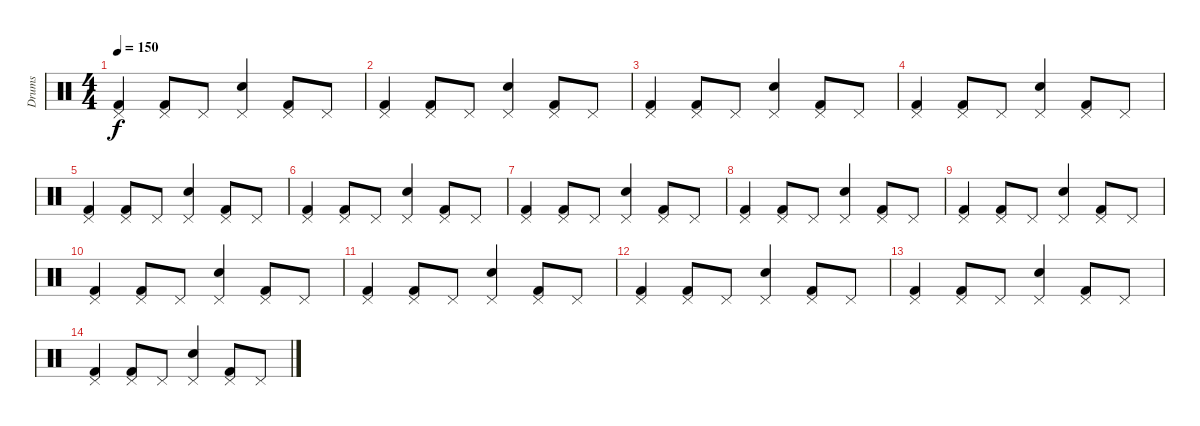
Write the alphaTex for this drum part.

\track ("Drums" "Drums") {instrument percussion}
\staff {score}
\articulation defaults
\ts (4 4)
\tempo 150
\clef neutral
\ks c
("Pedal Hi-Hat (hit)" "Kick (hit) 2").4{dy f} ("Pedal Hi-Hat (hit)" "Kick (hit) 2").8 "Pedal Hi-Hat (hit)".8 ("Pedal Hi-Hat (hit)" "Snare (hit) 2").4 ("Pedal Hi-Hat (hit)" "Kick (hit) 2").8 "Pedal Hi-Hat (hit)".8 |
("Pedal Hi-Hat (hit)" "Kick (hit) 2").4 ("Pedal Hi-Hat (hit)" "Kick (hit) 2").8 "Pedal Hi-Hat (hit)".8 ("Pedal Hi-Hat (hit)" "Snare (hit) 2").4 ("Pedal Hi-Hat (hit)" "Kick (hit) 2").8 "Pedal Hi-Hat (hit)".8 |
("Pedal Hi-Hat (hit)" "Kick (hit) 2").4 ("Pedal Hi-Hat (hit)" "Kick (hit) 2").8 "Pedal Hi-Hat (hit)".8 ("Pedal Hi-Hat (hit)" "Snare (hit) 2").4 ("Pedal Hi-Hat (hit)" "Kick (hit) 2").8 "Pedal Hi-Hat (hit)".8 |
("Pedal Hi-Hat (hit)" "Kick (hit) 2").4 ("Pedal Hi-Hat (hit)" "Kick (hit) 2").8 "Pedal Hi-Hat (hit)".8 ("Pedal Hi-Hat (hit)" "Snare (hit) 2").4 ("Pedal Hi-Hat (hit)" "Kick (hit) 2").8 "Pedal Hi-Hat (hit)".8 |
("Pedal Hi-Hat (hit)" "Kick (hit) 2").4 ("Pedal Hi-Hat (hit)" "Kick (hit) 2").8 "Pedal Hi-Hat (hit)".8 ("Pedal Hi-Hat (hit)" "Snare (hit) 2").4 ("Pedal Hi-Hat (hit)" "Kick (hit) 2").8 "Pedal Hi-Hat (hit)".8 |
("Pedal Hi-Hat (hit)" "Kick (hit) 2").4 ("Pedal Hi-Hat (hit)" "Kick (hit) 2").8 "Pedal Hi-Hat (hit)".8 ("Pedal Hi-Hat (hit)" "Snare (hit) 2").4 ("Pedal Hi-Hat (hit)" "Kick (hit) 2").8 "Pedal Hi-Hat (hit)".8 |
("Pedal Hi-Hat (hit)" "Kick (hit) 2").4 ("Pedal Hi-Hat (hit)" "Kick (hit) 2").8 "Pedal Hi-Hat (hit)".8 ("Pedal Hi-Hat (hit)" "Snare (hit) 2").4 ("Pedal Hi-Hat (hit)" "Kick (hit) 2").8 "Pedal Hi-Hat (hit)".8 |
("Pedal Hi-Hat (hit)" "Kick (hit) 2").4 ("Pedal Hi-Hat (hit)" "Kick (hit) 2").8 "Pedal Hi-Hat (hit)".8 ("Pedal Hi-Hat (hit)" "Snare (hit) 2").4 ("Pedal Hi-Hat (hit)" "Kick (hit) 2").8 "Pedal Hi-Hat (hit)".8 |
("Pedal Hi-Hat (hit)" "Kick (hit) 2").4 ("Pedal Hi-Hat (hit)" "Kick (hit) 2").8 "Pedal Hi-Hat (hit)".8 ("Pedal Hi-Hat (hit)" "Snare (hit) 2").4 ("Pedal Hi-Hat (hit)" "Kick (hit) 2").8 "Pedal Hi-Hat (hit)".8 |
("Pedal Hi-Hat (hit)" "Kick (hit) 2").4 ("Pedal Hi-Hat (hit)" "Kick (hit) 2").8 "Pedal Hi-Hat (hit)".8 ("Pedal Hi-Hat (hit)" "Snare (hit) 2").4 ("Pedal Hi-Hat (hit)" "Kick (hit) 2").8 "Pedal Hi-Hat (hit)".8 |
("Pedal Hi-Hat (hit)" "Kick (hit) 2").4 ("Pedal Hi-Hat (hit)" "Kick (hit) 2").8 "Pedal Hi-Hat (hit)".8 ("Pedal Hi-Hat (hit)" "Snare (hit) 2").4 ("Pedal Hi-Hat (hit)" "Kick (hit) 2").8 "Pedal Hi-Hat (hit)".8 |
("Pedal Hi-Hat (hit)" "Kick (hit) 2").4 ("Pedal Hi-Hat (hit)" "Kick (hit) 2").8 "Pedal Hi-Hat (hit)".8 ("Pedal Hi-Hat (hit)" "Snare (hit) 2").4 ("Pedal Hi-Hat (hit)" "Kick (hit) 2").8 "Pedal Hi-Hat (hit)".8 |
("Pedal Hi-Hat (hit)" "Kick (hit) 2").4 ("Pedal Hi-Hat (hit)" "Kick (hit) 2").8 "Pedal Hi-Hat (hit)".8 ("Pedal Hi-Hat (hit)" "Snare (hit) 2").4 ("Pedal Hi-Hat (hit)" "Kick (hit) 2").8 "Pedal Hi-Hat (hit)".8 |
("Pedal Hi-Hat (hit)" "Kick (hit) 2").4 ("Pedal Hi-Hat (hit)" "Kick (hit) 2").8 "Pedal Hi-Hat (hit)".8 ("Pedal Hi-Hat (hit)" "Snare (hit) 2").4 ("Pedal Hi-Hat (hit)" "Kick (hit) 2").8 "Pedal Hi-Hat (hit)".8
